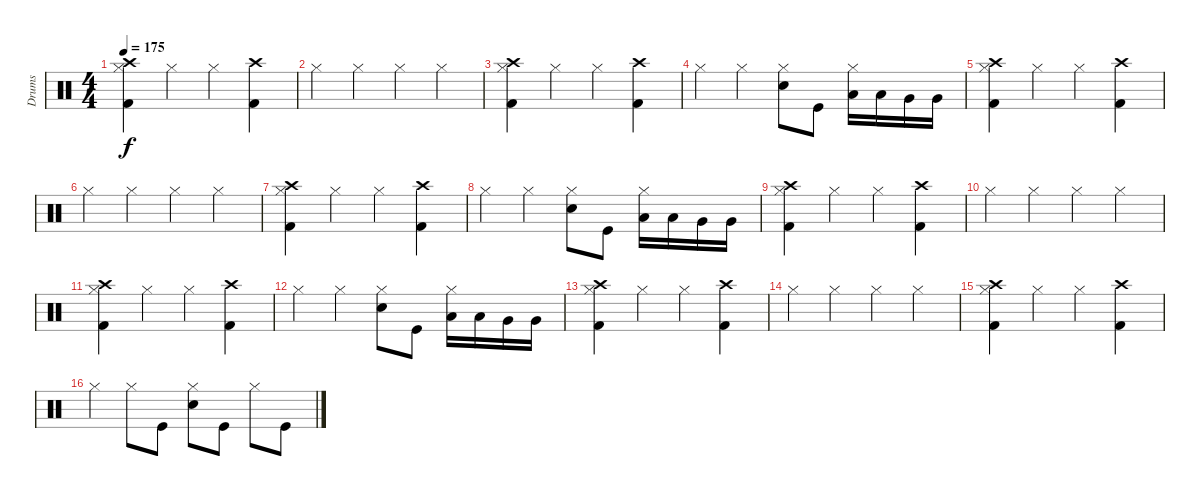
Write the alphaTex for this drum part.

\track ("Drums" "Drums") {instrument percussion}
\staff {score}
\articulation defaults
\ts (4 4)
\tempo 175
\clef neutral
\ks c
("Crash high (hit)" "Hi-Hat (closed)" "Kick (hit) 2").4{dy f} "Hi-Hat (closed)".4 "Hi-Hat (closed)".4 ("Crash high (hit)" "Kick (hit) 2").4 |
"Hi-Hat (closed)".4 "Hi-Hat (closed)".4 "Hi-Hat (closed)".4 "Hi-Hat (closed)".4 |
("Crash high (hit)" "Hi-Hat (closed)" "Kick (hit) 2").4 "Hi-Hat (closed)".4 "Hi-Hat (closed)".4 ("Crash high (hit)" "Kick (hit) 2").4 |
"Hi-Hat (closed)".4 "Hi-Hat (closed)".4 ("Hi-Hat (closed)" "Electric Snare (hit)").8 "Kick (hit)".8 ("Hi-Hat (closed)" "Low Tom (hit)").16 "Low Tom (hit)".16 "Very Low Tom (hit)".16 "Very Low Tom (hit)".16 |
("Crash high (hit)" "Hi-Hat (closed)" "Kick (hit) 2").4 "Hi-Hat (closed)".4 "Hi-Hat (closed)".4 ("Crash high (hit)" "Kick (hit) 2").4 |
"Hi-Hat (closed)".4 "Hi-Hat (closed)".4 "Hi-Hat (closed)".4 "Hi-Hat (closed)".4 |
("Crash high (hit)" "Hi-Hat (closed)" "Kick (hit) 2").4 "Hi-Hat (closed)".4 "Hi-Hat (closed)".4 ("Crash high (hit)" "Kick (hit) 2").4 |
"Hi-Hat (closed)".4 "Hi-Hat (closed)".4 ("Hi-Hat (closed)" "Electric Snare (hit)").8 "Kick (hit)".8 ("Hi-Hat (closed)" "Low Tom (hit)").16 "Low Tom (hit)".16 "Very Low Tom (hit)".16 "Very Low Tom (hit)".16 |
("Crash high (hit)" "Hi-Hat (closed)" "Kick (hit) 2").4 "Hi-Hat (closed)".4 "Hi-Hat (closed)".4 ("Crash high (hit)" "Kick (hit) 2").4 |
"Hi-Hat (closed)".4 "Hi-Hat (closed)".4 "Hi-Hat (closed)".4 "Hi-Hat (closed)".4 |
("Crash high (hit)" "Hi-Hat (closed)" "Kick (hit) 2").4 "Hi-Hat (closed)".4 "Hi-Hat (closed)".4 ("Crash high (hit)" "Kick (hit) 2").4 |
"Hi-Hat (closed)".4 "Hi-Hat (closed)".4 ("Hi-Hat (closed)" "Electric Snare (hit)").8 "Kick (hit)".8 ("Hi-Hat (closed)" "Low Tom (hit)").16 "Low Tom (hit)".16 "Very Low Tom (hit)".16 "Very Low Tom (hit)".16 |
("Crash high (hit)" "Hi-Hat (closed)" "Kick (hit) 2").4 "Hi-Hat (closed)".4 "Hi-Hat (closed)".4 ("Crash high (hit)" "Kick (hit) 2").4 |
"Hi-Hat (closed)".4 "Hi-Hat (closed)".4 "Hi-Hat (closed)".4 "Hi-Hat (closed)".4 |
("Crash high (hit)" "Hi-Hat (closed)" "Kick (hit) 2").4 "Hi-Hat (closed)".4 "Hi-Hat (closed)".4 ("Crash high (hit)" "Kick (hit) 2").4 |
"Hi-Hat (closed)".4 "Hi-Hat (closed)".8 "Kick (hit)".8 ("Hi-Hat (closed)" "Electric Snare (hit)").8 "Kick (hit)".8 "Hi-Hat (closed)".8 "Kick (hit)".8
